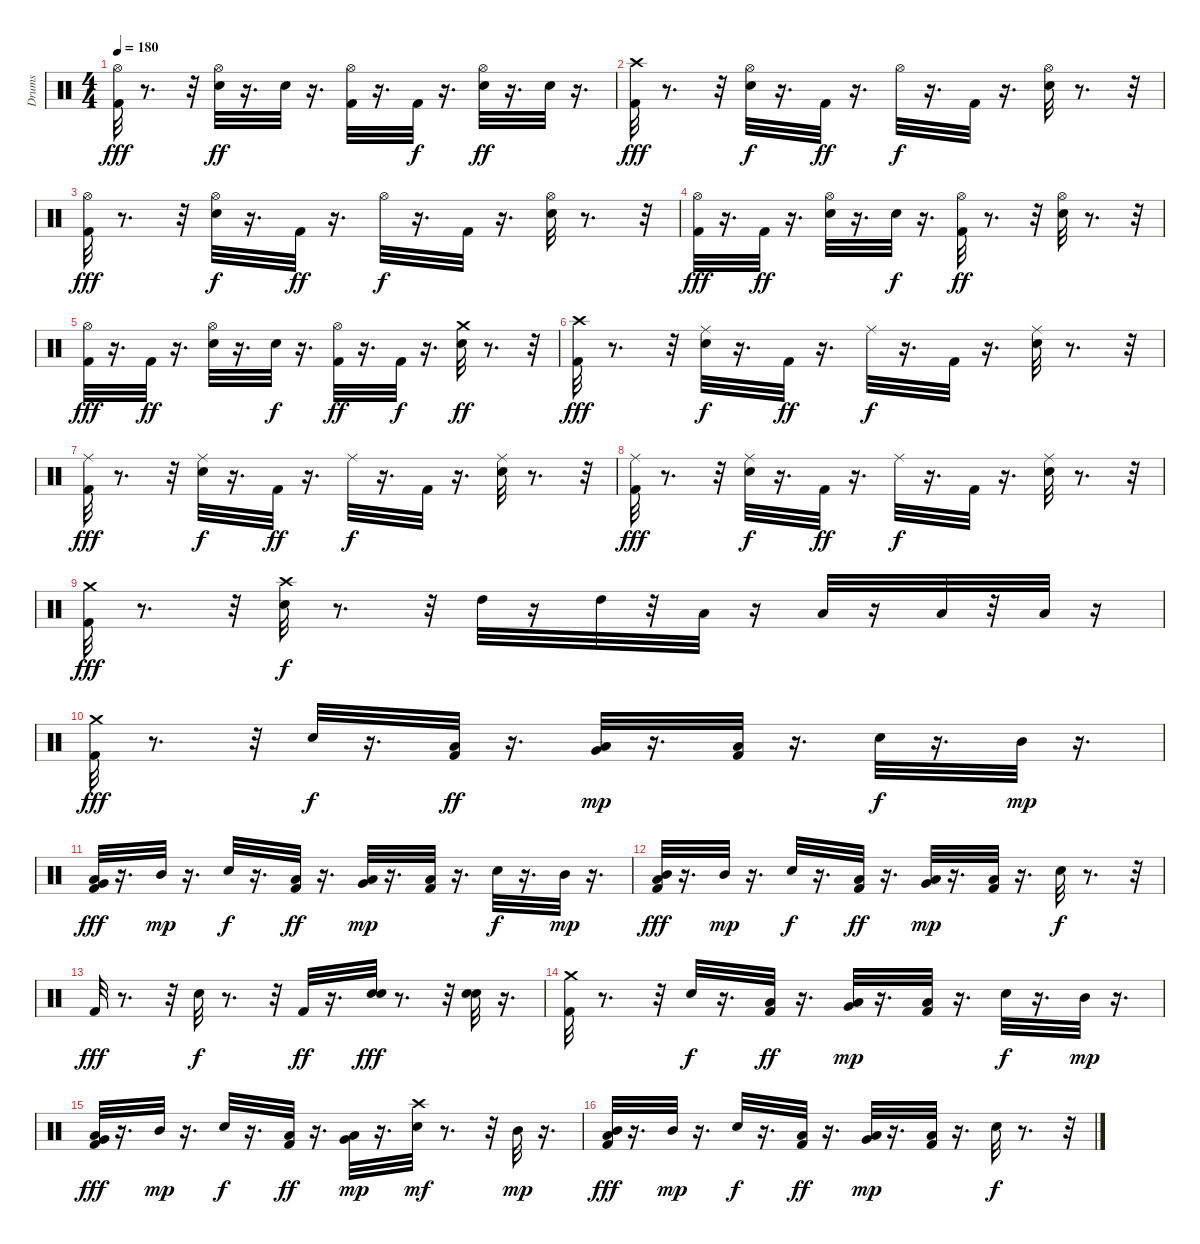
\track ("Drums" "Drums") {instrument percussion}
\staff {score}
\articulation defaults
\ts (4 4)
\tempo 180
\clef neutral
\ks c
("Hi-Hat (open)" "Kick (hit) 2").32{dy fff} r.8{d} r.32 ("Hi-Hat (open)" "Snare (hit) 2").32{dy ff} r.16{d} "Snare (hit) 2".32 r.16{d} ("Kick (hit) 2" "Hi-Hat (open)").32 r.16{d} "Kick (hit) 2".32{dy f} r.16{d} ("Hi-Hat (open)" "Snare (hit) 2").32{dy ff} r.16{d} "Snare (hit) 2".32 r.16{d} |
("Kick (hit) 2" "Crash high (hit)").32{dy fff} r.8{d} r.32 ("Hi-Hat (open)" "Snare (hit) 2").32{dy f} r.16{d} "Kick (hit) 2".32{dy ff} r.16{d} "Hi-Hat (open)".32{dy f} r.16{d} "Kick (hit) 2".32 r.16{d} ("Hi-Hat (open)" "Snare (hit) 2").32 r.8{d} r.32 |
("Hi-Hat (open)" "Kick (hit) 2").32{dy fff} r.8{d} r.32 ("Hi-Hat (open)" "Snare (hit) 2").32{dy f} r.16{d} "Kick (hit) 2".32{dy ff} r.16{d} "Hi-Hat (open)".32{dy f} r.16{d} "Kick (hit) 2".32 r.16{d} ("Hi-Hat (open)" "Snare (hit) 2").32 r.8{d} r.32 |
("Hi-Hat (open)" "Kick (hit) 2").32{dy fff} r.16{d} "Kick (hit) 2".32{dy ff} r.16{d} ("Hi-Hat (open)" "Snare (hit) 2").32 r.16{d} "Snare (hit) 2".32{dy f} r.16{d} ("Kick (hit) 2" "Hi-Hat (open)").32{dy ff} r.8{d} r.32 ("Hi-Hat (open)" "Snare (hit) 2").32 r.8{d} r.32 |
("Hi-Hat (open)" "Kick (hit) 2").32{dy fff} r.16{d} "Kick (hit) 2".32{dy ff} r.16{d} ("Hi-Hat (open)" "Snare (hit) 2").32 r.16{d} "Snare (hit) 2".32{dy f} r.16{d} ("Kick (hit) 2" "Hi-Hat (open)").32{dy ff} r.16{d} "Kick (hit) 2".32{dy f} r.16{d} ("Crash medium (hit)" "Snare (hit) 2").32{dy ff} r.8{d} r.32 |
("Kick (hit) 2" "Crash high (hit)").32{dy fff} r.8{d} r.32 ("Ride (middle)" "Snare (hit) 2").32{dy f} r.16{d} "Kick (hit) 2".32{dy ff} r.16{d} "Ride (middle)".32{dy f} r.16{d} "Kick (hit) 2".32 r.16{d} ("Ride (middle)" "Snare (hit) 2").32 r.8{d} r.32 |
("Ride (middle)" "Kick (hit) 2").32{dy fff} r.8{d} r.32 ("Ride (middle)" "Snare (hit) 2").32{dy f} r.16{d} "Kick (hit) 2".32{dy ff} r.16{d} "Ride (middle)".32{dy f} r.16{d} "Kick (hit) 2".32 r.16{d} ("Ride (middle)" "Snare (hit) 2").32 r.8{d} r.32 |
("Ride (middle)" "Kick (hit) 2").32{dy fff} r.8{d} r.32 ("Ride (middle)" "Snare (hit) 2").32{dy f} r.16{d} "Kick (hit) 2".32{dy ff} r.16{d} "Ride (middle)".32{dy f} r.16{d} "Kick (hit) 2".32 r.16{d} ("Ride (middle)" "Snare (hit) 2").32 r.8{d} r.32 |
("Crash medium (hit)" "Kick (hit) 2").32{dy fff} r.8{d} r.32 ("Crash high (hit)" "Snare (hit) 2").32{dy f} r.8{d} r.32 "High Tom (hit)".32 r.16 "High Tom (hit)".32 r.32 "Low Tom (hit)".32 r.16 "Low Tom (hit)".32 r.16 "Low Floor Tom (hit)".32 r.32 "Low Floor Tom (hit)".32 r.16 |
("Kick (hit) 2" "Crash medium (hit)").32{dy fff} r.8{d} r.32 "Snare (hit) 2".32{dy f} r.16{d} ("Low Tom (hit)" "Kick (hit) 2").32{dy ff} r.16{d} ("Very Low Tom (hit)" "Low Floor Tom (hit)").32{dy mp} r.16{d} ("Low Tom (hit)" "Kick (hit) 2").32 r.16{d} "Snare (hit) 2".32{dy f} r.16{d} "Mid Tom (hit)".32{dy mp} r.16{d} |
("Low Tom (hit)" "Very Low Tom (hit)" "Kick (hit) 2").32{dy fff} r.16{d} "Mid Tom (hit)".32{dy mp} r.16{d} "Snare (hit) 2".32{dy f} r.16{d} ("Low Tom (hit)" "Kick (hit) 2").32{dy ff} r.16{d} ("Very Low Tom (hit)" "Low Floor Tom (hit)").32{dy mp} r.16{d} ("Low Tom (hit)" "Kick (hit) 2").32 r.16{d} "Snare (hit) 2".32{dy f} r.16{d} "Mid Tom (hit)".32{dy mp} r.16{d} |
("Mid Tom (hit)" "Low Tom (hit)" "Kick (hit) 2").32{dy fff} r.16{d} "Mid Tom (hit)".32{dy mp} r.16{d} "Snare (hit) 2".32{dy f} r.16{d} ("Low Tom (hit)" "Kick (hit) 2").32{dy ff} r.16{d} ("Very Low Tom (hit)" "Low Floor Tom (hit)").32{dy mp} r.16{d} ("Low Tom (hit)" "Kick (hit) 2").32 r.16{d} "Snare (hit) 2".32{dy f} r.8{d} r.32 |
"Kick (hit) 2".32{dy fff} r.8{d} r.32 "Snare (hit) 2".32{dy f} r.8{d} r.32 "Kick (hit) 2".32{dy ff} r.16{d} ("Electric Snare (hit)" "Snare (hit) 2").32{dy fff} r.8{d} r.32 ("Electric Snare (hit)" "Snare (hit) 2").32 r.16{d} |
("Kick (hit) 2" "Crash medium (hit)").32 r.8{d} r.32 "Snare (hit) 2".32{dy f} r.16{d} ("Low Tom (hit)" "Kick (hit) 2").32{dy ff} r.16{d} ("Very Low Tom (hit)" "Low Floor Tom (hit)").32{dy mp} r.16{d} ("Low Tom (hit)" "Kick (hit) 2").32 r.16{d} "Snare (hit) 2".32{dy f} r.16{d} "Mid Tom (hit)".32{dy mp} r.16{d} |
("Low Tom (hit)" "Very Low Tom (hit)" "Kick (hit) 2").32{dy fff} r.16{d} "Mid Tom (hit)".32{dy mp} r.16{d} "Snare (hit) 2".32{dy f} r.16{d} ("Low Tom (hit)" "Kick (hit) 2").32{dy ff} r.16{d} ("Very Low Tom (hit)" "Low Floor Tom (hit)").32{dy mp} r.16{d} ("Crash high (hit)" "Snare (hit) 2").32{dy mf} r.8{d} r.32 "Mid Tom (hit)".32{dy mp} r.16{d} |
("Mid Tom (hit)" "Low Tom (hit)" "Kick (hit) 2").32{dy fff} r.16{d} "Mid Tom (hit)".32{dy mp} r.16{d} "Snare (hit) 2".32{dy f} r.16{d} ("Low Tom (hit)" "Kick (hit) 2").32{dy ff} r.16{d} ("Very Low Tom (hit)" "Low Floor Tom (hit)").32{dy mp} r.16{d} ("Low Tom (hit)" "Kick (hit) 2").32 r.16{d} "Snare (hit) 2".32{dy f} r.8{d} r.32
